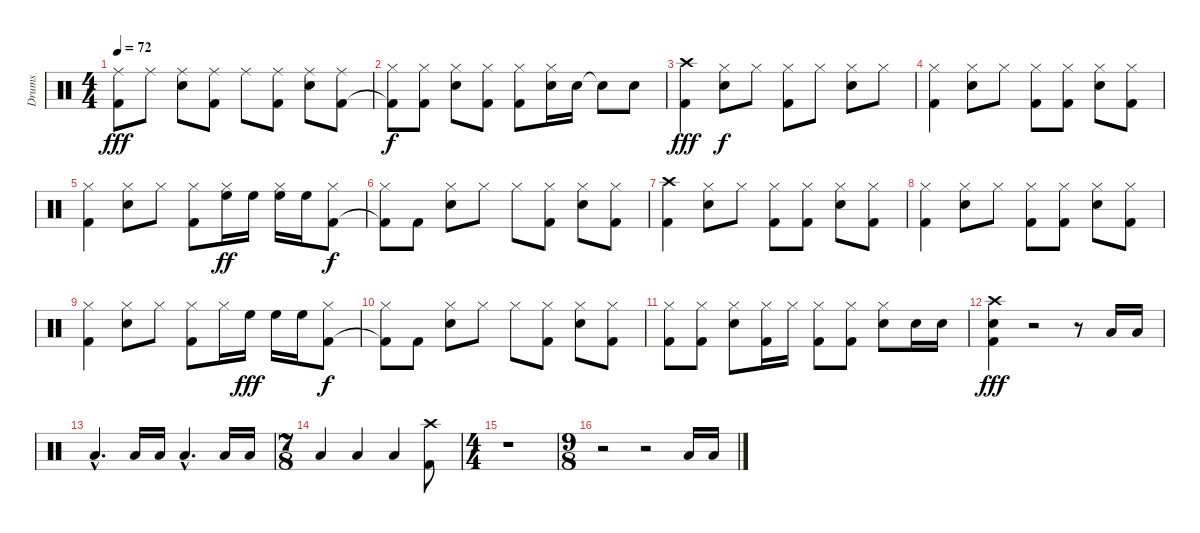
\track ("Drums" "Drums") {instrument percussion}
\staff {score}
\articulation defaults
\ts (4 4)
\tempo 72
\clef neutral
\ks c
("Ride (middle)" "Kick (hit) 2").8{dy fff} "Ride (middle)".8 ("Ride (middle)" "Snare (hit) 2").8 ("Ride (middle)" "Kick (hit) 2").8 "Ride (middle)".8 ("Ride (middle)" "Kick (hit) 2").8 ("Ride (middle)" "Snare (hit) 2").8 ("Ride (middle)" "Kick (hit) 2").8 |
("Hi-Hat (closed)" "Kick (hit) 2"{t}).8{dy f} ("Hi-Hat (closed)" "Kick (hit) 2").8 ("Hi-Hat (closed)" "Snare (hit) 2").8 ("Hi-Hat (closed)" "Kick (hit) 2").8 ("Hi-Hat (closed)" "Kick (hit) 2").8 ("Hi-Hat (closed)" "Snare (hit) 2").16 "Snare (hit) 2".16 "Snare (hit) 2"{t}.8 "Snare (hit) 2".8 |
("Crash high (hit)" "Kick (hit) 2").4{dy fff} ("Hi-Hat (closed)" "Snare (hit) 2").8{dy f} "Hi-Hat (closed)".8 ("Hi-Hat (closed)" "Kick (hit) 2").8 "Hi-Hat (closed)".8 ("Hi-Hat (closed)" "Snare (hit) 2").8 "Hi-Hat (closed)".8 |
("Hi-Hat (closed)" "Kick (hit) 2").4 ("Hi-Hat (closed)" "Snare (hit) 2").8 "Hi-Hat (closed)".8 ("Hi-Hat (closed)" "Kick (hit) 2").8 ("Hi-Hat (closed)" "Kick (hit) 2").8 ("Hi-Hat (closed)" "Snare (hit) 2").8 ("Hi-Hat (closed)" "Kick (hit) 2").8 |
("Hi-Hat (closed)" "Kick (hit) 2").4 ("Hi-Hat (closed)" "Snare (hit) 2").8 "Hi-Hat (closed)".8 ("Hi-Hat (closed)" "Kick (hit) 2").8 ("Hi-Hat (closed)" "High Floor Tom (hit)").16{dy ff} "High Floor Tom (hit)".16 ("Hi-Hat (closed)" "High Floor Tom (hit)").16 "High Floor Tom (hit)".16 ("Hi-Hat (closed)" "Kick (hit) 2").8{dy f} |
("Hi-Hat (closed)" "Kick (hit) 2"{t}).8 "Kick (hit) 2".8 ("Hi-Hat (closed)" "Snare (hit) 2").8 "Hi-Hat (closed)".8 "Hi-Hat (closed)".8 ("Hi-Hat (closed)" "Kick (hit) 2").8 ("Hi-Hat (closed)" "Snare (hit) 2").8 ("Hi-Hat (closed)" "Kick (hit) 2").8 |
("Crash high (hit)" "Kick (hit) 2").4 ("Hi-Hat (closed)" "Snare (hit) 2").8 "Hi-Hat (closed)".8 ("Hi-Hat (closed)" "Kick (hit) 2").8 ("Hi-Hat (closed)" "Kick (hit) 2").8 ("Hi-Hat (closed)" "Snare (hit) 2").8 ("Hi-Hat (closed)" "Kick (hit) 2").8 |
("Hi-Hat (closed)" "Kick (hit) 2").4 ("Hi-Hat (closed)" "Snare (hit) 2").8 "Hi-Hat (closed)".8 ("Hi-Hat (closed)" "Kick (hit) 2").8 ("Hi-Hat (closed)" "Kick (hit) 2").8 ("Hi-Hat (closed)" "Snare (hit) 2").8 ("Hi-Hat (closed)" "Kick (hit) 2").8 |
("Hi-Hat (closed)" "Kick (hit) 2").4 ("Hi-Hat (closed)" "Snare (hit) 2").8 "Hi-Hat (closed)".8 ("Hi-Hat (closed)" "Kick (hit) 2").8 "Hi-Hat (closed)".16 "High Floor Tom (hit)".16{dy fff} "High Floor Tom (hit)".16 "High Floor Tom (hit)".16 ("Hi-Hat (closed)" "Kick (hit) 2").8{dy f} |
("Hi-Hat (closed)" "Kick (hit) 2"{t}).8 "Kick (hit) 2".8 ("Hi-Hat (closed)" "Snare (hit) 2").8 "Hi-Hat (closed)".8 "Hi-Hat (closed)".8 ("Hi-Hat (closed)" "Kick (hit) 2").8 ("Hi-Hat (closed)" "Snare (hit) 2").8 ("Hi-Hat (closed)" "Kick (hit) 2").8 |
("Hi-Hat (closed)" "Kick (hit) 2").8 ("Hi-Hat (closed)" "Kick (hit) 2").8 ("Hi-Hat (closed)" "Snare (hit) 2").8 ("Hi-Hat (closed)" "Kick (hit) 2").16 "Hi-Hat (closed)".16 ("Hi-Hat (closed)" "Kick (hit) 2").8 ("Hi-Hat (closed)" "Kick (hit) 2").8 ("Hi-Hat (closed)" "Snare (hit) 2").8 "Snare (hit) 2".16 "Snare (hit) 2".16 |
("Crash high (hit)" "Snare (hit) 2" "Kick (hit) 2").4{dy fff} r.2 r.8 "Low Floor Tom (hit)".16 "Low Floor Tom (hit)".16 |
"Low Floor Tom (hit)"{hac}.4{d} "Low Floor Tom (hit)".16 "Low Floor Tom (hit)".16 "Low Floor Tom (hit)"{hac}.4{d} "Low Floor Tom (hit)".16 "Low Floor Tom (hit)".16 |
\ts (7 8)
"Low Floor Tom (hit)".4 "Low Floor Tom (hit)".4 "Low Floor Tom (hit)".4 ("Crash high (hit)" "Kick (hit) 2").8 |
\ts (4 4)
r.1 |
\ts (9 8)
r.2 r.2 "Low Floor Tom (hit)".16 "Low Floor Tom (hit)".16
